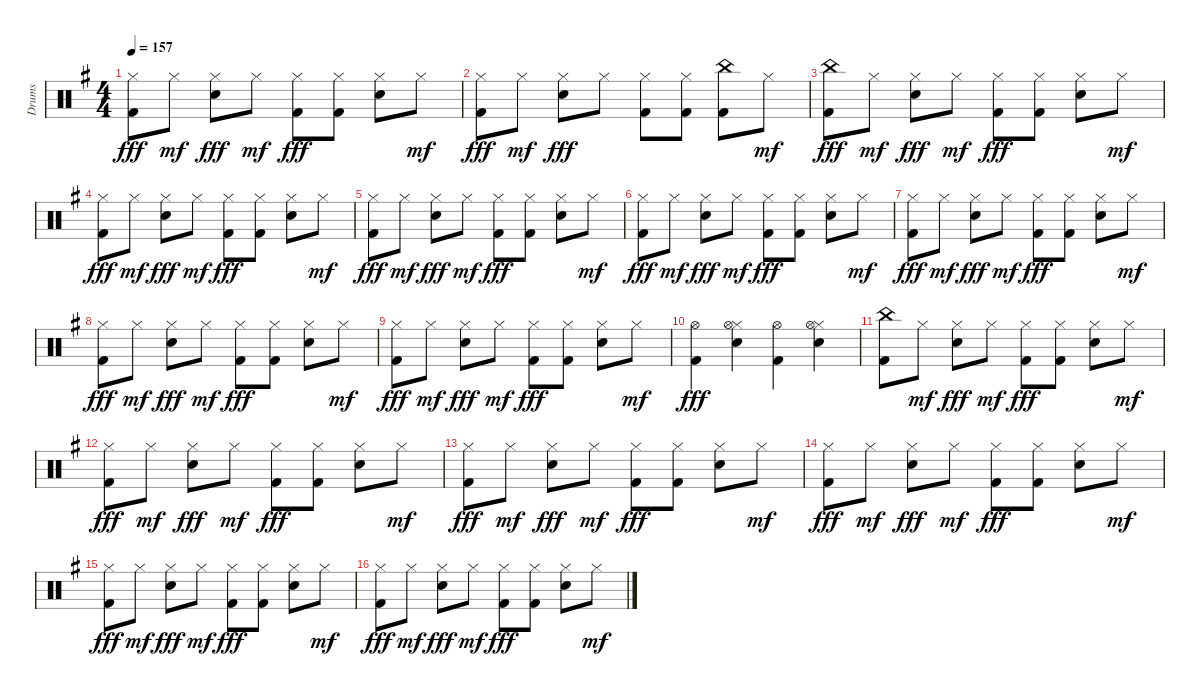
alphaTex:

\track ("Drums" "Drums") {instrument percussion}
\staff {score}
\articulation defaults
\ts (4 4)
\tempo 157
\clef neutral
\ks g
("Hi-Hat (closed)" "Kick (hit) 2").8{dy fff} "Hi-Hat (closed)".8{dy mf} ("Electric Snare (hit)" "Hi-Hat (closed)").8{dy fff} "Hi-Hat (closed)".8{dy mf} ("Hi-Hat (closed)" "Kick (hit) 2").8{dy fff} ("Hi-Hat (closed)" "Kick (hit) 2").8 ("Electric Snare (hit)" "Hi-Hat (closed)").8 "Hi-Hat (closed)".8{dy mf} |
("Hi-Hat (closed)" "Kick (hit) 2").8{dy fff} "Hi-Hat (closed)".8{dy mf} ("Electric Snare (hit)" "Hi-Hat (closed)").8{dy fff} "Hi-Hat (closed)".8 ("Hi-Hat (closed)" "Kick (hit) 2").8 ("Hi-Hat (closed)" "Kick (hit) 2").8 ("China (hit)" "Kick (hit) 2").8 "Hi-Hat (closed)".8{dy mf} |
("China (hit)" "Kick (hit) 2").8{dy fff} "Hi-Hat (closed)".8{dy mf} ("Electric Snare (hit)" "Hi-Hat (closed)").8{dy fff} "Hi-Hat (closed)".8{dy mf} ("Hi-Hat (closed)" "Kick (hit) 2").8{dy fff} ("Hi-Hat (closed)" "Kick (hit) 2").8 ("Electric Snare (hit)" "Hi-Hat (closed)").8 "Hi-Hat (closed)".8{dy mf} |
("Hi-Hat (closed)" "Kick (hit) 2").8{dy fff} "Hi-Hat (closed)".8{dy mf} ("Electric Snare (hit)" "Hi-Hat (closed)").8{dy fff} "Hi-Hat (closed)".8{dy mf} ("Hi-Hat (closed)" "Kick (hit) 2").8{dy fff} ("Hi-Hat (closed)" "Kick (hit) 2").8 ("Electric Snare (hit)" "Hi-Hat (closed)").8 "Hi-Hat (closed)".8{dy mf} |
("Hi-Hat (closed)" "Kick (hit) 2").8{dy fff} "Hi-Hat (closed)".8{dy mf} ("Electric Snare (hit)" "Hi-Hat (closed)").8{dy fff} "Hi-Hat (closed)".8{dy mf} ("Hi-Hat (closed)" "Kick (hit) 2").8{dy fff} ("Hi-Hat (closed)" "Kick (hit) 2").8 ("Electric Snare (hit)" "Hi-Hat (closed)").8 "Hi-Hat (closed)".8{dy mf} |
("Hi-Hat (closed)" "Kick (hit) 2").8{dy fff} "Hi-Hat (closed)".8{dy mf} ("Electric Snare (hit)" "Hi-Hat (closed)").8{dy fff} "Hi-Hat (closed)".8{dy mf} ("Hi-Hat (closed)" "Kick (hit) 2").8{dy fff} ("Hi-Hat (closed)" "Kick (hit) 2").8 ("Electric Snare (hit)" "Hi-Hat (closed)").8 "Hi-Hat (closed)".8{dy mf} |
("Hi-Hat (closed)" "Kick (hit) 2").8{dy fff} "Hi-Hat (closed)".8{dy mf} ("Electric Snare (hit)" "Hi-Hat (closed)").8{dy fff} "Hi-Hat (closed)".8{dy mf} ("Hi-Hat (closed)" "Kick (hit) 2").8{dy fff} ("Hi-Hat (closed)" "Kick (hit) 2").8 ("Electric Snare (hit)" "Hi-Hat (closed)").8 "Hi-Hat (closed)".8{dy mf} |
("Hi-Hat (closed)" "Kick (hit) 2").8{dy fff} "Hi-Hat (closed)".8{dy mf} ("Electric Snare (hit)" "Hi-Hat (closed)").8{dy fff} "Hi-Hat (closed)".8{dy mf} ("Hi-Hat (closed)" "Kick (hit) 2").8{dy fff} ("Hi-Hat (closed)" "Kick (hit) 2").8 ("Electric Snare (hit)" "Hi-Hat (closed)").8 "Hi-Hat (closed)".8{dy mf} |
("Hi-Hat (closed)" "Kick (hit) 2").8{dy fff} "Hi-Hat (closed)".8{dy mf} ("Electric Snare (hit)" "Hi-Hat (closed)").8{dy fff} "Hi-Hat (closed)".8{dy mf} ("Hi-Hat (closed)" "Kick (hit) 2").8{dy fff} ("Hi-Hat (closed)" "Kick (hit) 2").8 ("Electric Snare (hit)" "Hi-Hat (closed)").8 "Hi-Hat (closed)".8{dy mf} |
("Kick (hit) 2" "Hi-Hat (open)").4{dy fff} ("Electric Snare (hit)" "Hi-Hat (closed)" "Hi-Hat (open)").4 ("Kick (hit) 2" "Hi-Hat (open)").4 ("Electric Snare (hit)" "Hi-Hat (closed)" "Hi-Hat (open)").4 |
("China (hit)" "Kick (hit) 2").8 "Hi-Hat (closed)".8{dy mf} ("Electric Snare (hit)" "Hi-Hat (closed)").8{dy fff} "Hi-Hat (closed)".8{dy mf} ("Hi-Hat (closed)" "Kick (hit) 2").8{dy fff} ("Hi-Hat (closed)" "Kick (hit) 2").8 ("Electric Snare (hit)" "Hi-Hat (closed)").8 "Hi-Hat (closed)".8{dy mf} |
("Hi-Hat (closed)" "Kick (hit) 2").8{dy fff} "Hi-Hat (closed)".8{dy mf} ("Electric Snare (hit)" "Hi-Hat (closed)").8{dy fff} "Hi-Hat (closed)".8{dy mf} ("Hi-Hat (closed)" "Kick (hit) 2").8{dy fff} ("Hi-Hat (closed)" "Kick (hit) 2").8 ("Electric Snare (hit)" "Hi-Hat (closed)").8 "Hi-Hat (closed)".8{dy mf} |
("Hi-Hat (closed)" "Kick (hit) 2").8{dy fff} "Hi-Hat (closed)".8{dy mf} ("Electric Snare (hit)" "Hi-Hat (closed)").8{dy fff} "Hi-Hat (closed)".8{dy mf} ("Hi-Hat (closed)" "Kick (hit) 2").8{dy fff} ("Hi-Hat (closed)" "Kick (hit) 2").8 ("Electric Snare (hit)" "Hi-Hat (closed)").8 "Hi-Hat (closed)".8{dy mf} |
("Hi-Hat (closed)" "Kick (hit) 2").8{dy fff} "Hi-Hat (closed)".8{dy mf} ("Electric Snare (hit)" "Hi-Hat (closed)").8{dy fff} "Hi-Hat (closed)".8{dy mf} ("Hi-Hat (closed)" "Kick (hit) 2").8{dy fff} ("Hi-Hat (closed)" "Kick (hit) 2").8 ("Electric Snare (hit)" "Hi-Hat (closed)").8 "Hi-Hat (closed)".8{dy mf} |
("Hi-Hat (closed)" "Kick (hit) 2").8{dy fff} "Hi-Hat (closed)".8{dy mf} ("Electric Snare (hit)" "Hi-Hat (closed)").8{dy fff} "Hi-Hat (closed)".8{dy mf} ("Hi-Hat (closed)" "Kick (hit) 2").8{dy fff} ("Hi-Hat (closed)" "Kick (hit) 2").8 ("Electric Snare (hit)" "Hi-Hat (closed)").8 "Hi-Hat (closed)".8{dy mf} |
("Hi-Hat (closed)" "Kick (hit) 2").8{dy fff} "Hi-Hat (closed)".8{dy mf} ("Electric Snare (hit)" "Hi-Hat (closed)").8{dy fff} "Hi-Hat (closed)".8{dy mf} ("Hi-Hat (closed)" "Kick (hit) 2").8{dy fff} ("Hi-Hat (closed)" "Kick (hit) 2").8 ("Electric Snare (hit)" "Hi-Hat (closed)").8 "Hi-Hat (closed)".8{dy mf}
